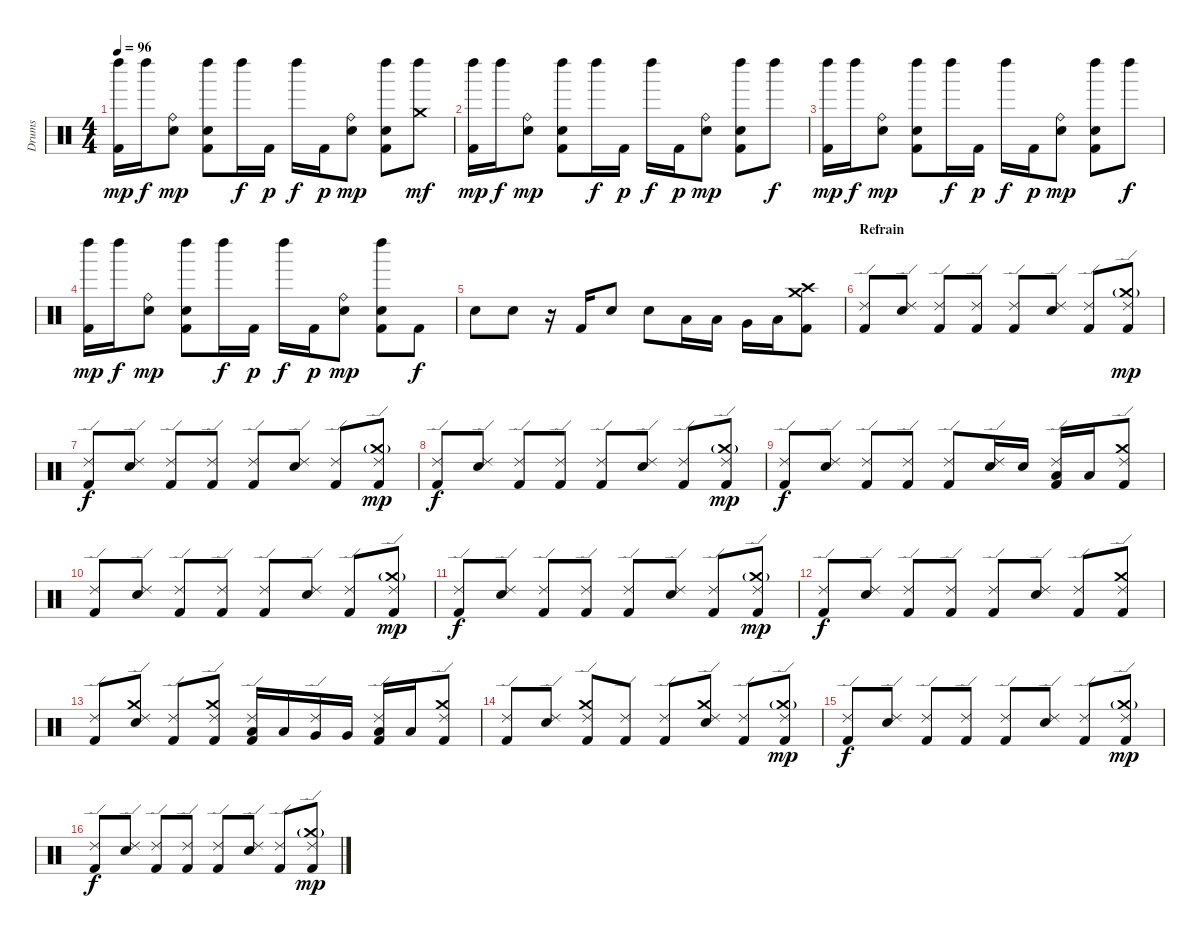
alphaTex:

\track ("Drums" "Drums") {instrument percussion}
\staff {score}
\articulation defaults
\ts (4 4)
\tempo 96
\clef neutral
\ks c
("Left Maraca (hit)" "Kick (hit) 2").16{dy mp} "Left Maraca (hit)".16{dy f} ("Snare (hit) 2" "Ride (bell)").8{dy mp} ("Left Maraca (hit)" "Electric Snare (hit)" "Kick (hit) 2").8 "Left Maraca (hit)".16{dy f} "Kick (hit) 2".16{dy p} "Left Maraca (hit)".16{dy f} "Kick (hit) 2".16{dy p} ("Snare (hit) 2" "Ride (bell)").8{dy mp} ("Left Maraca (hit)" "Electric Snare (hit)" "Kick (hit) 2").8 ("Crash medium (hit)" "Left Maraca (hit)").8{dy mf} |
("Left Maraca (hit)" "Kick (hit) 2").16{dy mp} "Left Maraca (hit)".16{dy f} ("Snare (hit) 2" "Ride (bell)").8{dy mp} ("Left Maraca (hit)" "Electric Snare (hit)" "Kick (hit) 2").8 "Left Maraca (hit)".16{dy f} "Kick (hit) 2".16{dy p} "Left Maraca (hit)".16{dy f} "Kick (hit) 2".16{dy p} ("Snare (hit) 2" "Ride (bell)").8{dy mp} ("Left Maraca (hit)" "Electric Snare (hit)" "Kick (hit) 2").8 "Left Maraca (hit)".8{dy f} |
("Left Maraca (hit)" "Kick (hit) 2").16{dy mp} "Left Maraca (hit)".16{dy f} ("Snare (hit) 2" "Ride (bell)").8{dy mp} ("Left Maraca (hit)" "Electric Snare (hit)" "Kick (hit) 2").8 "Left Maraca (hit)".16{dy f} "Kick (hit) 2".16{dy p} "Left Maraca (hit)".16{dy f} "Kick (hit) 2".16{dy p} ("Snare (hit) 2" "Ride (bell)").8{dy mp} ("Left Maraca (hit)" "Electric Snare (hit)" "Kick (hit) 2").8 "Left Maraca (hit)".8{dy f} |
("Left Maraca (hit)" "Kick (hit) 2").16{dy mp} "Left Maraca (hit)".16{dy f} ("Snare (hit) 2" "Ride (bell)").8{dy mp} ("Left Maraca (hit)" "Electric Snare (hit)" "Kick (hit) 2").8 "Left Maraca (hit)".16{dy f} "Kick (hit) 2".16{dy p} "Left Maraca (hit)".16{dy f} "Kick (hit) 2".16{dy p} ("Snare (hit) 2" "Ride (bell)").8{dy mp} ("Left Maraca (hit)" "Electric Snare (hit)" "Kick (hit) 2").8 "Kick (hit) 2".8{dy f} |
"Snare (hit) 2".8 "Snare (hit) 2".8 r.16 "Kick (hit) 2".16 "Snare (hit) 2".8 "Snare (hit) 2".8 "Low Tom (hit)".16 "Low Tom (hit)".16 "Very Low Tom (hit)".16 "Low Floor Tom (hit)".16 ("Crash medium (hit)" "Crash high (hit)" "Kick (hit) 2").8 |
\section ("" "Refrain")
("Ride (edge) 2" "Kick (hit) 2").8 ("Ride (edge) 2" "Snare (hit) 2").8 ("Ride (edge) 2" "Kick (hit) 2").8 ("Ride (edge) 2" "Kick (hit) 2").8 ("Ride (edge) 2" "Kick (hit) 2").8 ("Ride (edge) 2" "Snare (hit) 2").8 ("Ride (edge) 2" "Kick (hit) 2").8 ("Crash medium (hit)"{g} "Ride (edge) 2" "Kick (hit) 2").8{dy mp} |
("Ride (edge) 2" "Kick (hit) 2").8{dy f} ("Ride (edge) 2" "Snare (hit) 2").8 ("Ride (edge) 2" "Kick (hit) 2").8 ("Ride (edge) 2" "Kick (hit) 2").8 ("Ride (edge) 2" "Kick (hit) 2").8 ("Ride (edge) 2" "Snare (hit) 2").8 ("Ride (edge) 2" "Kick (hit) 2").8 ("Crash medium (hit)"{g} "Ride (edge) 2" "Kick (hit) 2").8{dy mp} |
("Ride (edge) 2" "Kick (hit) 2").8{dy f} ("Ride (edge) 2" "Snare (hit) 2").8 ("Ride (edge) 2" "Kick (hit) 2").8 ("Ride (edge) 2" "Kick (hit) 2").8 ("Ride (edge) 2" "Kick (hit) 2").8 ("Ride (edge) 2" "Snare (hit) 2").8 ("Ride (edge) 2" "Kick (hit) 2").8 ("Crash medium (hit)"{g} "Ride (edge) 2" "Kick (hit) 2").8{dy mp} |
("Ride (edge) 2" "Kick (hit) 2").8{dy f} ("Ride (edge) 2" "Snare (hit) 2").8 ("Ride (edge) 2" "Kick (hit) 2").8 ("Ride (edge) 2" "Kick (hit) 2").8 ("Ride (edge) 2" "Kick (hit) 2").8 ("Ride (edge) 2" "Snare (hit) 2").16 "Snare (hit) 2".16 ("Ride (edge) 2" "Low Tom (hit)" "Kick (hit) 2").16 "Low Tom (hit)".16 ("Crash medium (hit)" "Ride (edge) 2" "Kick (hit) 2").8 |
("Ride (edge) 2" "Kick (hit) 2").8 ("Ride (edge) 2" "Snare (hit) 2").8 ("Ride (edge) 2" "Kick (hit) 2").8 ("Ride (edge) 2" "Kick (hit) 2").8 ("Ride (edge) 2" "Kick (hit) 2").8 ("Ride (edge) 2" "Snare (hit) 2").8 ("Ride (edge) 2" "Kick (hit) 2").8 ("Crash medium (hit)"{g} "Ride (edge) 2" "Kick (hit) 2").8{dy mp} |
("Ride (edge) 2" "Kick (hit) 2").8{dy f} ("Ride (edge) 2" "Snare (hit) 2").8 ("Ride (edge) 2" "Kick (hit) 2").8 ("Ride (edge) 2" "Kick (hit) 2").8 ("Ride (edge) 2" "Kick (hit) 2").8 ("Ride (edge) 2" "Snare (hit) 2").8 ("Ride (edge) 2" "Kick (hit) 2").8 ("Crash medium (hit)"{g} "Ride (edge) 2" "Kick (hit) 2").8{dy mp} |
("Ride (edge) 2" "Kick (hit) 2").8{dy f} ("Ride (edge) 2" "Snare (hit) 2").8 ("Ride (edge) 2" "Kick (hit) 2").8 ("Ride (edge) 2" "Kick (hit) 2").8 ("Ride (edge) 2" "Kick (hit) 2").8 ("Ride (edge) 2" "Snare (hit) 2").8 ("Ride (edge) 2" "Kick (hit) 2").8 ("Crash medium (hit)" "Ride (edge) 2" "Kick (hit) 2").8 |
("Ride (edge) 2" "Kick (hit) 2").8 ("Crash medium (hit)" "Ride (edge) 2" "Snare (hit) 2").8 ("Ride (edge) 2" "Kick (hit) 2").8 ("Crash medium (hit)" "Ride (edge) 2" "Kick (hit) 2").8 ("Ride (edge) 2" "Low Tom (hit)" "Kick (hit) 2").16 "Low Tom (hit)".16 ("Ride (edge) 2" "Very Low Tom (hit)").16 "Very Low Tom (hit)".16 ("Ride (edge) 2" "Low Floor Tom (hit)" "Kick (hit) 2").16 "Low Floor Tom (hit)".16 ("Crash medium (hit)" "Ride (edge) 2" "Kick (hit) 2").8 |
("Ride (edge) 2" "Kick (hit) 2").8 ("Ride (edge) 2" "Snare (hit) 2").8 ("Crash medium (hit)" "Ride (edge) 2" "Kick (hit) 2").8 ("Ride (edge) 2" "Kick (hit) 2").8 ("Ride (edge) 2" "Kick (hit) 2").8 ("Crash medium (hit)" "Ride (edge) 2" "Snare (hit) 2").8 ("Ride (edge) 2" "Kick (hit) 2").8 ("Crash medium (hit)"{g} "Ride (edge) 2" "Kick (hit) 2").8{dy mp} |
("Ride (edge) 2" "Kick (hit) 2").8{dy f} ("Ride (edge) 2" "Snare (hit) 2").8 ("Ride (edge) 2" "Kick (hit) 2").8 ("Ride (edge) 2" "Kick (hit) 2").8 ("Ride (edge) 2" "Kick (hit) 2").8 ("Ride (edge) 2" "Snare (hit) 2").8 ("Ride (edge) 2" "Kick (hit) 2").8 ("Crash medium (hit)"{g} "Ride (edge) 2" "Kick (hit) 2").8{dy mp} |
("Ride (edge) 2" "Kick (hit) 2").8{dy f} ("Ride (edge) 2" "Snare (hit) 2").8 ("Ride (edge) 2" "Kick (hit) 2").8 ("Ride (edge) 2" "Kick (hit) 2").8 ("Ride (edge) 2" "Kick (hit) 2").8 ("Ride (edge) 2" "Snare (hit) 2").8 ("Ride (edge) 2" "Kick (hit) 2").8 ("Crash medium (hit)"{g} "Ride (edge) 2" "Kick (hit) 2").8{dy mp}
